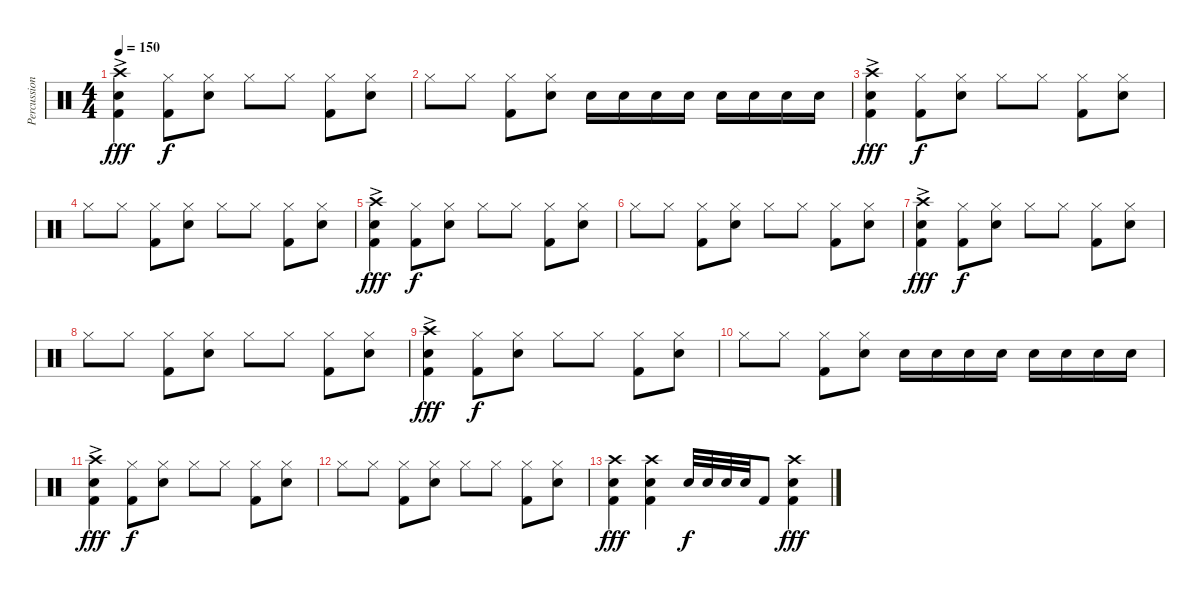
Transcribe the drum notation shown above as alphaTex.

\track ("Percussion" "Percussion") {instrument percussion}
\staff {score}
\articulation defaults
\ts (4 4)
\tempo 150
\clef neutral
\ks c
("Crash high (hit)"{ac} "Kick (hit) 2"{ac} "Electric Snare (hit)"{ac}).4{dy fff} ("Hi-Hat (closed)" "Kick (hit) 2").8{dy f} ("Hi-Hat (closed)" "Electric Snare (hit)").8 "Hi-Hat (closed)".8 "Hi-Hat (closed)".8 ("Hi-Hat (closed)" "Kick (hit) 2").8 ("Hi-Hat (closed)" "Electric Snare (hit)").8 |
"Hi-Hat (closed)".8 "Hi-Hat (closed)".8 ("Hi-Hat (closed)" "Kick (hit) 2").8 ("Hi-Hat (closed)" "Electric Snare (hit)").8 "Electric Snare (hit)".16 "Electric Snare (hit)".16 "Electric Snare (hit)".16 "Electric Snare (hit)".16 "Electric Snare (hit)".16 "Electric Snare (hit)".16 "Electric Snare (hit)".16 "Electric Snare (hit)".16 |
("Crash high (hit)"{ac} "Kick (hit) 2"{ac} "Electric Snare (hit)"{ac}).4{dy fff} ("Hi-Hat (closed)" "Kick (hit) 2").8{dy f} ("Hi-Hat (closed)" "Electric Snare (hit)").8 "Hi-Hat (closed)".8 "Hi-Hat (closed)".8 ("Hi-Hat (closed)" "Kick (hit) 2").8 ("Hi-Hat (closed)" "Electric Snare (hit)").8 |
"Hi-Hat (closed)".8 "Hi-Hat (closed)".8 ("Hi-Hat (closed)" "Kick (hit) 2").8 ("Hi-Hat (closed)" "Electric Snare (hit)").8 "Hi-Hat (closed)".8 "Hi-Hat (closed)".8 ("Hi-Hat (closed)" "Kick (hit) 2").8 ("Hi-Hat (closed)" "Electric Snare (hit)").8 |
("Crash high (hit)"{ac} "Kick (hit) 2"{ac} "Electric Snare (hit)"{ac}).4{dy fff} ("Hi-Hat (closed)" "Kick (hit) 2").8{dy f} ("Hi-Hat (closed)" "Electric Snare (hit)").8 "Hi-Hat (closed)".8 "Hi-Hat (closed)".8 ("Hi-Hat (closed)" "Kick (hit) 2").8 ("Hi-Hat (closed)" "Electric Snare (hit)").8 |
"Hi-Hat (closed)".8 "Hi-Hat (closed)".8 ("Hi-Hat (closed)" "Kick (hit) 2").8 ("Hi-Hat (closed)" "Electric Snare (hit)").8 "Hi-Hat (closed)".8 "Hi-Hat (closed)".8 ("Hi-Hat (closed)" "Kick (hit) 2").8 ("Hi-Hat (closed)" "Electric Snare (hit)").8 |
("Crash high (hit)"{ac} "Kick (hit) 2"{ac} "Electric Snare (hit)"{ac}).4{dy fff} ("Hi-Hat (closed)" "Kick (hit) 2").8{dy f} ("Hi-Hat (closed)" "Electric Snare (hit)").8 "Hi-Hat (closed)".8 "Hi-Hat (closed)".8 ("Hi-Hat (closed)" "Kick (hit) 2").8 ("Hi-Hat (closed)" "Electric Snare (hit)").8 |
"Hi-Hat (closed)".8 "Hi-Hat (closed)".8 ("Hi-Hat (closed)" "Kick (hit) 2").8 ("Hi-Hat (closed)" "Electric Snare (hit)").8 "Hi-Hat (closed)".8 "Hi-Hat (closed)".8 ("Hi-Hat (closed)" "Kick (hit) 2").8 ("Hi-Hat (closed)" "Electric Snare (hit)").8 |
("Crash high (hit)"{ac} "Kick (hit) 2"{ac} "Electric Snare (hit)"{ac}).4{dy fff} ("Hi-Hat (closed)" "Kick (hit) 2").8{dy f} ("Hi-Hat (closed)" "Electric Snare (hit)").8 "Hi-Hat (closed)".8 "Hi-Hat (closed)".8 ("Hi-Hat (closed)" "Kick (hit) 2").8 ("Hi-Hat (closed)" "Electric Snare (hit)").8 |
"Hi-Hat (closed)".8 "Hi-Hat (closed)".8 ("Hi-Hat (closed)" "Kick (hit) 2").8 ("Hi-Hat (closed)" "Electric Snare (hit)").8 "Electric Snare (hit)".16 "Electric Snare (hit)".16 "Electric Snare (hit)".16 "Electric Snare (hit)".16 "Electric Snare (hit)".16 "Electric Snare (hit)".16 "Electric Snare (hit)".16 "Electric Snare (hit)".16 |
("Crash high (hit)"{ac} "Kick (hit) 2"{ac} "Electric Snare (hit)"{ac}).4{dy fff} ("Hi-Hat (closed)" "Kick (hit) 2").8{dy f} ("Hi-Hat (closed)" "Electric Snare (hit)").8 "Hi-Hat (closed)".8 "Hi-Hat (closed)".8 ("Hi-Hat (closed)" "Kick (hit) 2").8 ("Hi-Hat (closed)" "Electric Snare (hit)").8 |
"Hi-Hat (closed)".8 "Hi-Hat (closed)".8 ("Hi-Hat (closed)" "Kick (hit) 2").8 ("Hi-Hat (closed)" "Electric Snare (hit)").8 "Hi-Hat (closed)".8 "Hi-Hat (closed)".8 ("Hi-Hat (closed)" "Kick (hit) 2").8 ("Hi-Hat (closed)" "Electric Snare (hit)").8 |
("Crash high (hit)" "Snare (hit) 2" "Kick (hit) 2").4{dy fff} ("Crash high (hit)" "Snare (hit) 2" "Kick (hit) 2").4 "Electric Snare (hit)".32{dy f} "Electric Snare (hit)".32 "Electric Snare (hit)".32 "Electric Snare (hit)".32 "Kick (hit) 2".8 ("Crash high (hit)" "Snare (hit) 2" "Kick (hit) 2").4{dy fff}
